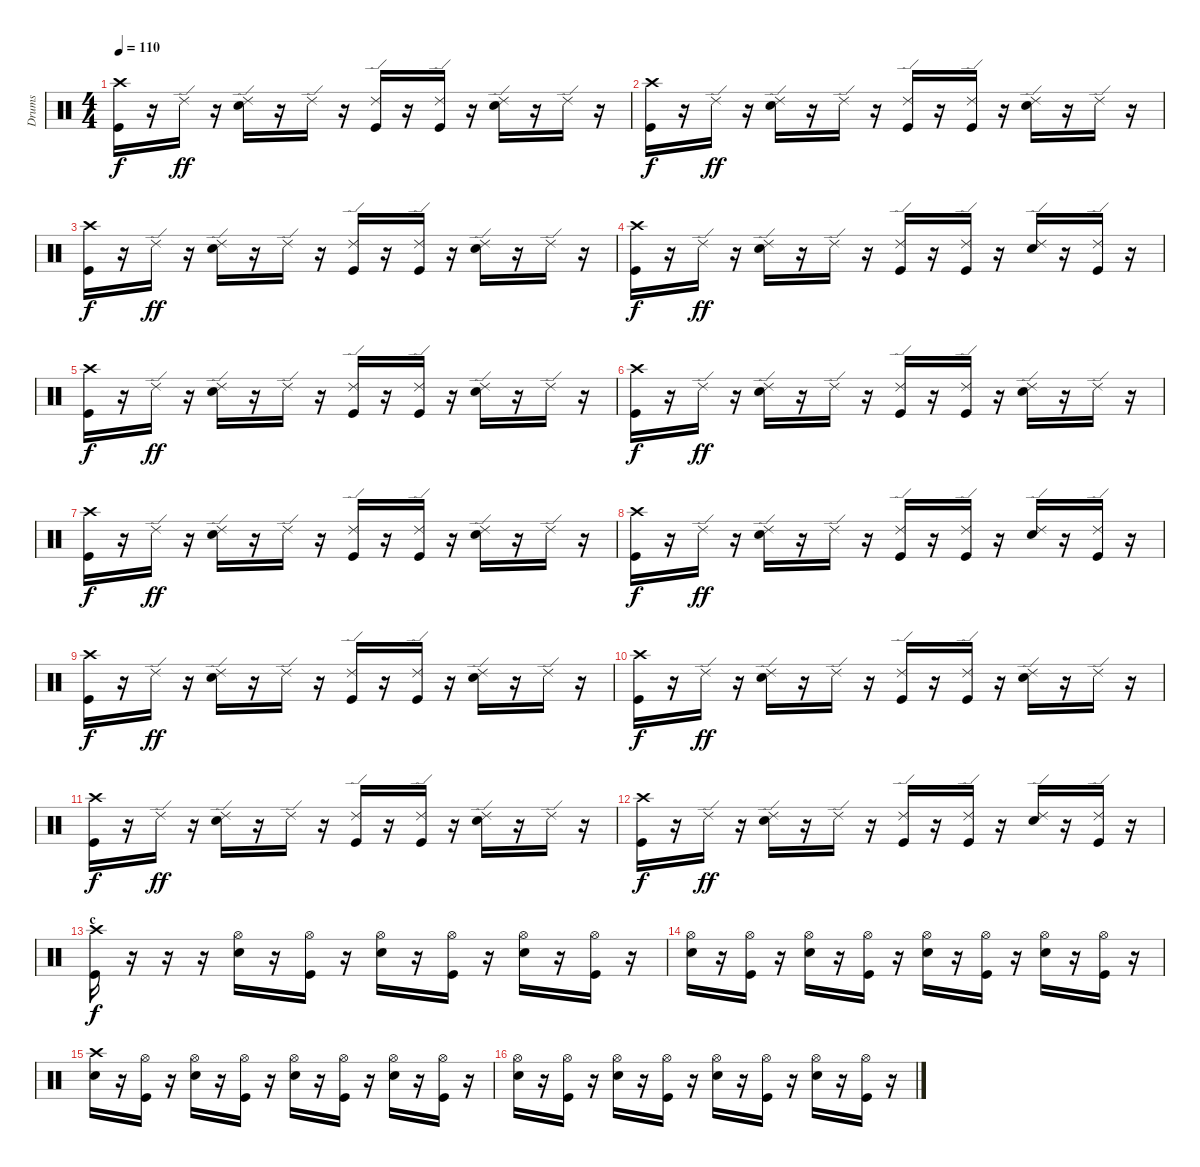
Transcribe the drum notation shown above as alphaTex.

\track ("Drums" "Drums") {instrument percussion}
\staff {score}
\articulation defaults
\ts (4 4)
\tempo 110
\clef neutral
\ks c
("Crash high (hit)" "Kick (hit)").16{dy f} r.16 "Ride (edge) 2".16{dy ff} r.16 ("Ride (edge) 2" "Snare (hit) 2").16 r.16 "Ride (edge) 2".16 r.16 ("Ride (edge) 2" "Kick (hit)").16 r.16 ("Ride (edge) 2" "Kick (hit)").16 r.16 ("Ride (edge) 2" "Snare (hit) 2").16 r.16 "Ride (edge) 2".16 r.16 |
("Crash high (hit)" "Kick (hit)").16{dy f} r.16 "Ride (edge) 2".16{dy ff} r.16 ("Ride (edge) 2" "Snare (hit) 2").16 r.16 "Ride (edge) 2".16 r.16 ("Ride (edge) 2" "Kick (hit)").16 r.16 ("Ride (edge) 2" "Kick (hit)").16 r.16 ("Ride (edge) 2" "Snare (hit) 2").16 r.16 "Ride (edge) 2".16 r.16 |
("Crash high (hit)" "Kick (hit)").16{dy f} r.16 "Ride (edge) 2".16{dy ff} r.16 ("Ride (edge) 2" "Snare (hit) 2").16 r.16 "Ride (edge) 2".16 r.16 ("Ride (edge) 2" "Kick (hit)").16 r.16 ("Ride (edge) 2" "Kick (hit)").16 r.16 ("Ride (edge) 2" "Snare (hit) 2").16 r.16 "Ride (edge) 2".16 r.16 |
("Crash high (hit)" "Kick (hit)").16{dy f} r.16 "Ride (edge) 2".16{dy ff} r.16 ("Ride (edge) 2" "Snare (hit) 2").16 r.16 "Ride (edge) 2".16 r.16 ("Ride (edge) 2" "Kick (hit)").16 r.16 ("Ride (edge) 2" "Kick (hit)").16 r.16 ("Ride (edge) 2" "Snare (hit) 2").16 r.16 ("Ride (edge) 2" "Kick (hit)").16 r.16 |
("Crash high (hit)" "Kick (hit)").16{dy f} r.16 "Ride (edge) 2".16{dy ff} r.16 ("Ride (edge) 2" "Snare (hit) 2").16 r.16 "Ride (edge) 2".16 r.16 ("Ride (edge) 2" "Kick (hit)").16 r.16 ("Ride (edge) 2" "Kick (hit)").16 r.16 ("Ride (edge) 2" "Snare (hit) 2").16 r.16 "Ride (edge) 2".16 r.16 |
("Crash high (hit)" "Kick (hit)").16{dy f} r.16 "Ride (edge) 2".16{dy ff} r.16 ("Ride (edge) 2" "Snare (hit) 2").16 r.16 "Ride (edge) 2".16 r.16 ("Ride (edge) 2" "Kick (hit)").16 r.16 ("Ride (edge) 2" "Kick (hit)").16 r.16 ("Ride (edge) 2" "Snare (hit) 2").16 r.16 "Ride (edge) 2".16 r.16 |
("Crash high (hit)" "Kick (hit)").16{dy f} r.16 "Ride (edge) 2".16{dy ff} r.16 ("Ride (edge) 2" "Snare (hit) 2").16 r.16 "Ride (edge) 2".16 r.16 ("Ride (edge) 2" "Kick (hit)").16 r.16 ("Ride (edge) 2" "Kick (hit)").16 r.16 ("Ride (edge) 2" "Snare (hit) 2").16 r.16 "Ride (edge) 2".16 r.16 |
("Crash high (hit)" "Kick (hit)").16{dy f} r.16 "Ride (edge) 2".16{dy ff} r.16 ("Ride (edge) 2" "Snare (hit) 2").16 r.16 "Ride (edge) 2".16 r.16 ("Ride (edge) 2" "Kick (hit)").16 r.16 ("Ride (edge) 2" "Kick (hit)").16 r.16 ("Ride (edge) 2" "Snare (hit) 2").16 r.16 ("Ride (edge) 2" "Kick (hit)").16 r.16 |
("Crash high (hit)" "Kick (hit)").16{dy f} r.16 "Ride (edge) 2".16{dy ff} r.16 ("Ride (edge) 2" "Snare (hit) 2").16 r.16 "Ride (edge) 2".16 r.16 ("Ride (edge) 2" "Kick (hit)").16 r.16 ("Ride (edge) 2" "Kick (hit)").16 r.16 ("Ride (edge) 2" "Snare (hit) 2").16 r.16 "Ride (edge) 2".16 r.16 |
("Crash high (hit)" "Kick (hit)").16{dy f} r.16 "Ride (edge) 2".16{dy ff} r.16 ("Ride (edge) 2" "Snare (hit) 2").16 r.16 "Ride (edge) 2".16 r.16 ("Ride (edge) 2" "Kick (hit)").16 r.16 ("Ride (edge) 2" "Kick (hit)").16 r.16 ("Ride (edge) 2" "Snare (hit) 2").16 r.16 "Ride (edge) 2".16 r.16 |
("Crash high (hit)" "Kick (hit)").16{dy f} r.16 "Ride (edge) 2".16{dy ff} r.16 ("Ride (edge) 2" "Snare (hit) 2").16 r.16 "Ride (edge) 2".16 r.16 ("Ride (edge) 2" "Kick (hit)").16 r.16 ("Ride (edge) 2" "Kick (hit)").16 r.16 ("Ride (edge) 2" "Snare (hit) 2").16 r.16 "Ride (edge) 2".16 r.16 |
("Crash high (hit)" "Kick (hit)").16{dy f} r.16 "Ride (edge) 2".16{dy ff} r.16 ("Ride (edge) 2" "Snare (hit) 2").16 r.16 "Ride (edge) 2".16 r.16 ("Ride (edge) 2" "Kick (hit)").16 r.16 ("Ride (edge) 2" "Kick (hit)").16 r.16 ("Ride (edge) 2" "Snare (hit) 2").16 r.16 ("Ride (edge) 2" "Kick (hit)").16 r.16 |
\section ("" "c")
("Crash high (hit)" "Kick (hit)").16{dy f} r.16 r.16 r.16 ("Hi-Hat (open)" "Snare (hit) 2").16 r.16 ("Hi-Hat (open)" "Kick (hit)").16 r.16 ("Hi-Hat (open)" "Snare (hit) 2").16 r.16 ("Hi-Hat (open)" "Kick (hit)").16 r.16 ("Hi-Hat (open)" "Snare (hit) 2").16 r.16 ("Hi-Hat (open)" "Kick (hit)").16 r.16 |
("Hi-Hat (open)" "Snare (hit) 2").16 r.16 ("Hi-Hat (open)" "Kick (hit)").16 r.16 ("Hi-Hat (open)" "Snare (hit) 2").16 r.16 ("Hi-Hat (open)" "Kick (hit)").16 r.16 ("Hi-Hat (open)" "Snare (hit) 2").16 r.16 ("Hi-Hat (open)" "Kick (hit)").16 r.16 ("Hi-Hat (open)" "Snare (hit) 2").16 r.16 ("Hi-Hat (open)" "Kick (hit)").16 r.16 |
("Crash high (hit)" "Snare (hit) 2").16 r.16 ("Hi-Hat (open)" "Kick (hit)").16 r.16 ("Hi-Hat (open)" "Snare (hit) 2").16 r.16 ("Hi-Hat (open)" "Kick (hit)").16 r.16 ("Hi-Hat (open)" "Snare (hit) 2").16 r.16 ("Hi-Hat (open)" "Kick (hit)").16 r.16 ("Hi-Hat (open)" "Snare (hit) 2").16 r.16 ("Hi-Hat (open)" "Kick (hit)").16 r.16 |
("Hi-Hat (open)" "Snare (hit) 2").16 r.16 ("Hi-Hat (open)" "Kick (hit)").16 r.16 ("Hi-Hat (open)" "Snare (hit) 2").16 r.16 ("Hi-Hat (open)" "Kick (hit)").16 r.16 ("Hi-Hat (open)" "Snare (hit) 2").16 r.16 ("Hi-Hat (open)" "Kick (hit)").16 r.16 ("Hi-Hat (open)" "Snare (hit) 2").16 r.16 ("Hi-Hat (open)" "Kick (hit)").16 r.16
